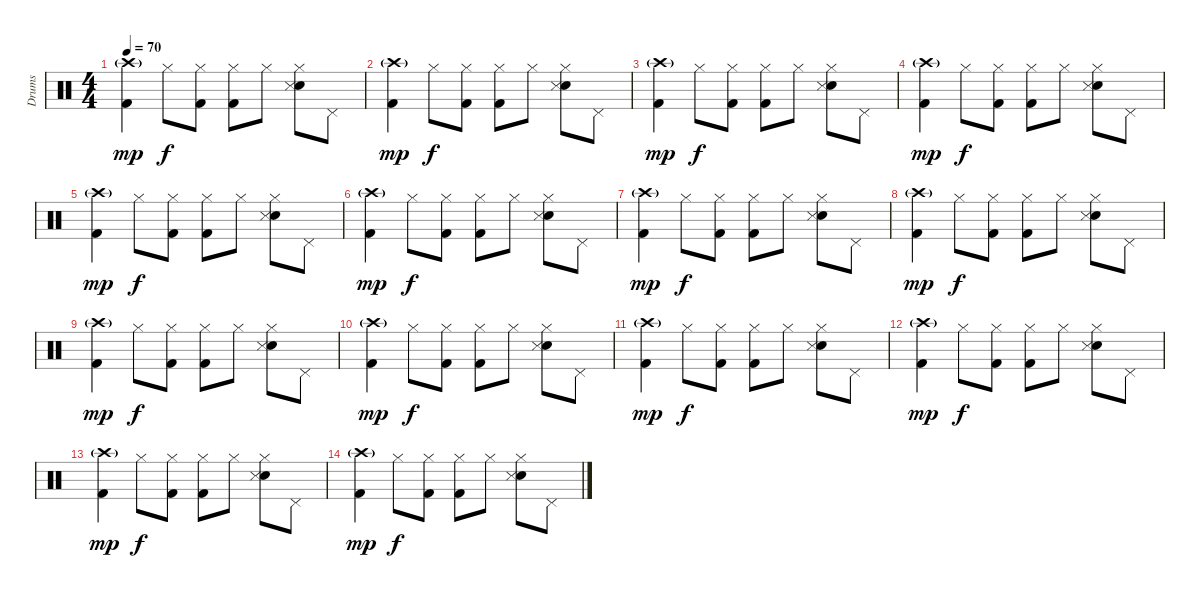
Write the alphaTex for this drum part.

\track ("Drums" "Drums") {instrument percussion}
\staff {score}
\articulation defaults
\ts (4 4)
\tempo 70
\clef neutral
\ks c
("Crash high (hit)"{g} "Kick (hit) 2").4{dy mp} "Hi-Hat (closed)".8{dy f} ("Hi-Hat (closed)" "Kick (hit) 2").8 ("Hi-Hat (closed)" "Kick (hit) 2").8 "Hi-Hat (closed)".8 ("Hi-Hat (closed)" "Electric Snare (hit)" "Snare (side stick) 3").8 "Pedal Hi-Hat (hit)".8 |
("Crash high (hit)"{g} "Kick (hit) 2").4{dy mp} "Hi-Hat (closed)".8{dy f} ("Hi-Hat (closed)" "Kick (hit) 2").8 ("Hi-Hat (closed)" "Kick (hit) 2").8 "Hi-Hat (closed)".8 ("Hi-Hat (closed)" "Electric Snare (hit)" "Snare (side stick) 3").8 "Pedal Hi-Hat (hit)".8 |
("Crash high (hit)"{g} "Kick (hit) 2").4{dy mp} "Hi-Hat (closed)".8{dy f} ("Hi-Hat (closed)" "Kick (hit) 2").8 ("Hi-Hat (closed)" "Kick (hit) 2").8 "Hi-Hat (closed)".8 ("Hi-Hat (closed)" "Electric Snare (hit)" "Snare (side stick) 3").8 "Pedal Hi-Hat (hit)".8 |
("Crash high (hit)"{g} "Kick (hit) 2").4{dy mp} "Hi-Hat (closed)".8{dy f} ("Hi-Hat (closed)" "Kick (hit) 2").8 ("Hi-Hat (closed)" "Kick (hit) 2").8 "Hi-Hat (closed)".8 ("Hi-Hat (closed)" "Electric Snare (hit)" "Snare (side stick) 3").8 "Pedal Hi-Hat (hit)".8 |
("Crash high (hit)"{g} "Kick (hit) 2").4{dy mp} "Hi-Hat (closed)".8{dy f} ("Hi-Hat (closed)" "Kick (hit) 2").8 ("Hi-Hat (closed)" "Kick (hit) 2").8 "Hi-Hat (closed)".8 ("Hi-Hat (closed)" "Electric Snare (hit)" "Snare (side stick) 3").8 "Pedal Hi-Hat (hit)".8 |
("Crash high (hit)"{g} "Kick (hit) 2").4{dy mp} "Hi-Hat (closed)".8{dy f} ("Hi-Hat (closed)" "Kick (hit) 2").8 ("Hi-Hat (closed)" "Kick (hit) 2").8 "Hi-Hat (closed)".8 ("Hi-Hat (closed)" "Electric Snare (hit)" "Snare (side stick) 3").8 "Pedal Hi-Hat (hit)".8 |
("Crash high (hit)"{g} "Kick (hit) 2").4{dy mp} "Hi-Hat (closed)".8{dy f} ("Hi-Hat (closed)" "Kick (hit) 2").8 ("Hi-Hat (closed)" "Kick (hit) 2").8 "Hi-Hat (closed)".8 ("Hi-Hat (closed)" "Electric Snare (hit)" "Snare (side stick) 3").8 "Pedal Hi-Hat (hit)".8 |
("Crash high (hit)"{g} "Kick (hit) 2").4{dy mp} "Hi-Hat (closed)".8{dy f} ("Hi-Hat (closed)" "Kick (hit) 2").8 ("Hi-Hat (closed)" "Kick (hit) 2").8 "Hi-Hat (closed)".8 ("Hi-Hat (closed)" "Electric Snare (hit)" "Snare (side stick) 3").8 "Pedal Hi-Hat (hit)".8 |
("Crash high (hit)"{g} "Kick (hit) 2").4{dy mp} "Hi-Hat (closed)".8{dy f} ("Hi-Hat (closed)" "Kick (hit) 2").8 ("Hi-Hat (closed)" "Kick (hit) 2").8 "Hi-Hat (closed)".8 ("Hi-Hat (closed)" "Electric Snare (hit)" "Snare (side stick) 3").8 "Pedal Hi-Hat (hit)".8 |
("Crash high (hit)"{g} "Kick (hit) 2").4{dy mp} "Hi-Hat (closed)".8{dy f} ("Hi-Hat (closed)" "Kick (hit) 2").8 ("Hi-Hat (closed)" "Kick (hit) 2").8 "Hi-Hat (closed)".8 ("Hi-Hat (closed)" "Electric Snare (hit)" "Snare (side stick) 3").8 "Pedal Hi-Hat (hit)".8 |
("Crash high (hit)"{g} "Kick (hit) 2").4{dy mp} "Hi-Hat (closed)".8{dy f} ("Hi-Hat (closed)" "Kick (hit) 2").8 ("Hi-Hat (closed)" "Kick (hit) 2").8 "Hi-Hat (closed)".8 ("Hi-Hat (closed)" "Electric Snare (hit)" "Snare (side stick) 3").8 "Pedal Hi-Hat (hit)".8 |
("Crash high (hit)"{g} "Kick (hit) 2").4{dy mp} "Hi-Hat (closed)".8{dy f} ("Hi-Hat (closed)" "Kick (hit) 2").8 ("Hi-Hat (closed)" "Kick (hit) 2").8 "Hi-Hat (closed)".8 ("Hi-Hat (closed)" "Electric Snare (hit)" "Snare (side stick) 3").8 "Pedal Hi-Hat (hit)".8 |
("Crash high (hit)"{g} "Kick (hit) 2").4{dy mp} "Hi-Hat (closed)".8{dy f} ("Hi-Hat (closed)" "Kick (hit) 2").8 ("Hi-Hat (closed)" "Kick (hit) 2").8 "Hi-Hat (closed)".8 ("Hi-Hat (closed)" "Electric Snare (hit)" "Snare (side stick) 3").8 "Pedal Hi-Hat (hit)".8 |
("Crash high (hit)"{g} "Kick (hit) 2").4{dy mp} "Hi-Hat (closed)".8{dy f} ("Hi-Hat (closed)" "Kick (hit) 2").8 ("Hi-Hat (closed)" "Kick (hit) 2").8 "Hi-Hat (closed)".8 ("Hi-Hat (closed)" "Electric Snare (hit)" "Snare (side stick) 3").8 "Pedal Hi-Hat (hit)".8
